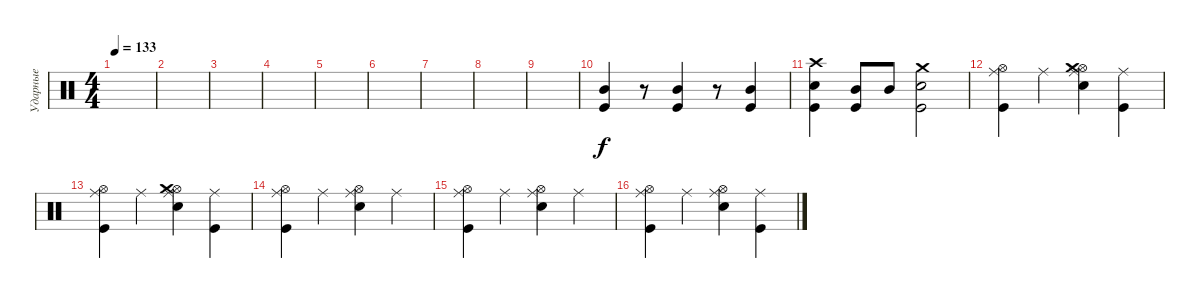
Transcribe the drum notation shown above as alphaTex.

\track ("Ударные" "Ударные") {instrument percussion}
\staff {score}
\articulation defaults
\ts (4 4)
\tempo 133
\clef neutral
\ks c
|
|
|
|
|
|
|
|
|
("Mid Tom (hit)" "Kick (hit)").4 r.8 ("Mid Tom (hit)" "Kick (hit)").4 r.8 ("Mid Tom (hit)" "Kick (hit)").4 |
("Electric Snare (hit)" "Kick (hit)" "Crash high (hit)").4 ("Mid Tom (hit)" "Kick (hit)").8 "Mid Tom (hit)".8 ("Electric Snare (hit)" "Kick (hit)" "Crash medium (hit)").2 |
("Hi-Hat (open)" "Kick (hit)" "Ride (middle)").4 "Ride (middle)".4 ("Hi-Hat (open)" "Electric Snare (hit)" "Ride (middle)" "Crash medium (hit)").4 ("Kick (hit)" "Ride (middle)").4 |
("Hi-Hat (open)" "Kick (hit)" "Ride (middle)").4 "Ride (middle)".4 ("Hi-Hat (open)" "Electric Snare (hit)" "Ride (middle)" "Crash medium (hit)").4 ("Kick (hit)" "Ride (middle)").4 |
("Hi-Hat (open)" "Kick (hit)" "Ride (middle)").4 "Ride (middle)".4 ("Hi-Hat (open)" "Electric Snare (hit)" "Ride (middle)").4 "Ride (middle)".4 |
("Hi-Hat (open)" "Kick (hit)" "Ride (middle)").4 "Ride (middle)".4 ("Hi-Hat (open)" "Electric Snare (hit)" "Ride (middle)").4 "Ride (middle)".4 |
("Hi-Hat (open)" "Kick (hit)" "Ride (middle)").4 "Ride (middle)".4 ("Hi-Hat (open)" "Electric Snare (hit)" "Ride (middle)").4 ("Kick (hit)" "Ride (middle)").4
